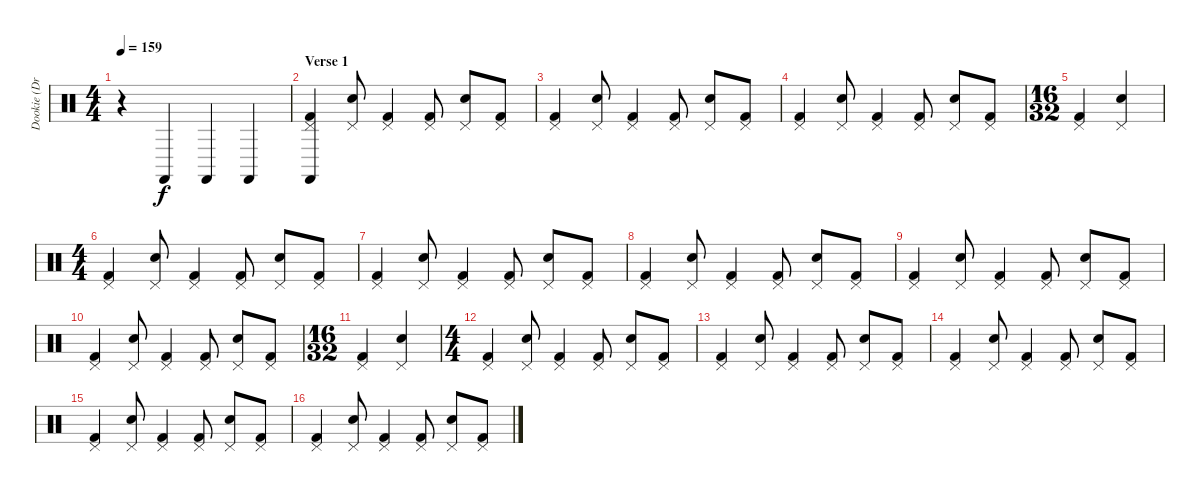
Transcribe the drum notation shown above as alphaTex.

\track ("Dookie (Drums)" "Dookie (Dr") {instrument percussion}
\staff {score}
\articulation defaults
\ts (4 4)
\tempo 159
\clef neutral
\ks c
r.4{dy f} "Castanets (hit)".4 "Castanets (hit)".4 "Castanets (hit)".4 |
\section ("" "Verse 1")
("Kick (hit) 2" "Pedal Hi-Hat (hit)" "Castanets (hit)").4 ("Electric Snare (hit)" "Pedal Hi-Hat (hit)").8 ("Kick (hit) 2" "Pedal Hi-Hat (hit)").4 ("Kick (hit) 2" "Pedal Hi-Hat (hit)").8 ("Electric Snare (hit)" "Pedal Hi-Hat (hit)").8 ("Kick (hit) 2" "Pedal Hi-Hat (hit)").8 |
("Kick (hit) 2" "Pedal Hi-Hat (hit)").4 ("Electric Snare (hit)" "Pedal Hi-Hat (hit)").8 ("Kick (hit) 2" "Pedal Hi-Hat (hit)").4 ("Kick (hit) 2" "Pedal Hi-Hat (hit)").8 ("Electric Snare (hit)" "Pedal Hi-Hat (hit)").8 ("Kick (hit) 2" "Pedal Hi-Hat (hit)").8 |
("Kick (hit) 2" "Pedal Hi-Hat (hit)").4 ("Electric Snare (hit)" "Pedal Hi-Hat (hit)").8 ("Kick (hit) 2" "Pedal Hi-Hat (hit)").4 ("Kick (hit) 2" "Pedal Hi-Hat (hit)").8 ("Electric Snare (hit)" "Pedal Hi-Hat (hit)").8 ("Kick (hit) 2" "Pedal Hi-Hat (hit)").8 |
\ts (16 32)
("Kick (hit) 2" "Pedal Hi-Hat (hit)").4 ("Electric Snare (hit)" "Pedal Hi-Hat (hit)").4 |
\ts (4 4)
("Kick (hit) 2" "Pedal Hi-Hat (hit)").4 ("Electric Snare (hit)" "Pedal Hi-Hat (hit)").8 ("Kick (hit) 2" "Pedal Hi-Hat (hit)").4 ("Kick (hit) 2" "Pedal Hi-Hat (hit)").8 ("Electric Snare (hit)" "Pedal Hi-Hat (hit)").8 ("Kick (hit) 2" "Pedal Hi-Hat (hit)").8 |
("Kick (hit) 2" "Pedal Hi-Hat (hit)").4 ("Electric Snare (hit)" "Pedal Hi-Hat (hit)").8 ("Kick (hit) 2" "Pedal Hi-Hat (hit)").4 ("Kick (hit) 2" "Pedal Hi-Hat (hit)").8 ("Electric Snare (hit)" "Pedal Hi-Hat (hit)").8 ("Kick (hit) 2" "Pedal Hi-Hat (hit)").8 |
("Kick (hit) 2" "Pedal Hi-Hat (hit)").4 ("Electric Snare (hit)" "Pedal Hi-Hat (hit)").8 ("Kick (hit) 2" "Pedal Hi-Hat (hit)").4 ("Kick (hit) 2" "Pedal Hi-Hat (hit)").8 ("Electric Snare (hit)" "Pedal Hi-Hat (hit)").8 ("Kick (hit) 2" "Pedal Hi-Hat (hit)").8 |
("Kick (hit) 2" "Pedal Hi-Hat (hit)").4 ("Electric Snare (hit)" "Pedal Hi-Hat (hit)").8 ("Kick (hit) 2" "Pedal Hi-Hat (hit)").4 ("Kick (hit) 2" "Pedal Hi-Hat (hit)").8 ("Electric Snare (hit)" "Pedal Hi-Hat (hit)").8 ("Kick (hit) 2" "Pedal Hi-Hat (hit)").8 |
("Kick (hit) 2" "Pedal Hi-Hat (hit)").4 ("Electric Snare (hit)" "Pedal Hi-Hat (hit)").8 ("Kick (hit) 2" "Pedal Hi-Hat (hit)").4 ("Kick (hit) 2" "Pedal Hi-Hat (hit)").8 ("Electric Snare (hit)" "Pedal Hi-Hat (hit)").8 ("Kick (hit) 2" "Pedal Hi-Hat (hit)").8 |
\ts (16 32)
("Kick (hit) 2" "Pedal Hi-Hat (hit)").4 ("Electric Snare (hit)" "Pedal Hi-Hat (hit)").4 |
\ts (4 4)
("Kick (hit) 2" "Pedal Hi-Hat (hit)").4 ("Electric Snare (hit)" "Pedal Hi-Hat (hit)").8 ("Kick (hit) 2" "Pedal Hi-Hat (hit)").4 ("Kick (hit) 2" "Pedal Hi-Hat (hit)").8 ("Electric Snare (hit)" "Pedal Hi-Hat (hit)").8 ("Kick (hit) 2" "Pedal Hi-Hat (hit)").8 |
("Kick (hit) 2" "Pedal Hi-Hat (hit)").4 ("Electric Snare (hit)" "Pedal Hi-Hat (hit)").8 ("Kick (hit) 2" "Pedal Hi-Hat (hit)").4 ("Kick (hit) 2" "Pedal Hi-Hat (hit)").8 ("Electric Snare (hit)" "Pedal Hi-Hat (hit)").8 ("Kick (hit) 2" "Pedal Hi-Hat (hit)").8 |
("Kick (hit) 2" "Pedal Hi-Hat (hit)").4 ("Electric Snare (hit)" "Pedal Hi-Hat (hit)").8 ("Kick (hit) 2" "Pedal Hi-Hat (hit)").4 ("Kick (hit) 2" "Pedal Hi-Hat (hit)").8 ("Electric Snare (hit)" "Pedal Hi-Hat (hit)").8 ("Kick (hit) 2" "Pedal Hi-Hat (hit)").8 |
("Kick (hit) 2" "Pedal Hi-Hat (hit)").4 ("Electric Snare (hit)" "Pedal Hi-Hat (hit)").8 ("Kick (hit) 2" "Pedal Hi-Hat (hit)").4 ("Kick (hit) 2" "Pedal Hi-Hat (hit)").8 ("Electric Snare (hit)" "Pedal Hi-Hat (hit)").8 ("Kick (hit) 2" "Pedal Hi-Hat (hit)").8 |
("Kick (hit) 2" "Pedal Hi-Hat (hit)").4 ("Electric Snare (hit)" "Pedal Hi-Hat (hit)").8 ("Kick (hit) 2" "Pedal Hi-Hat (hit)").4 ("Kick (hit) 2" "Pedal Hi-Hat (hit)").8 ("Electric Snare (hit)" "Pedal Hi-Hat (hit)").8 ("Kick (hit) 2" "Pedal Hi-Hat (hit)").8
